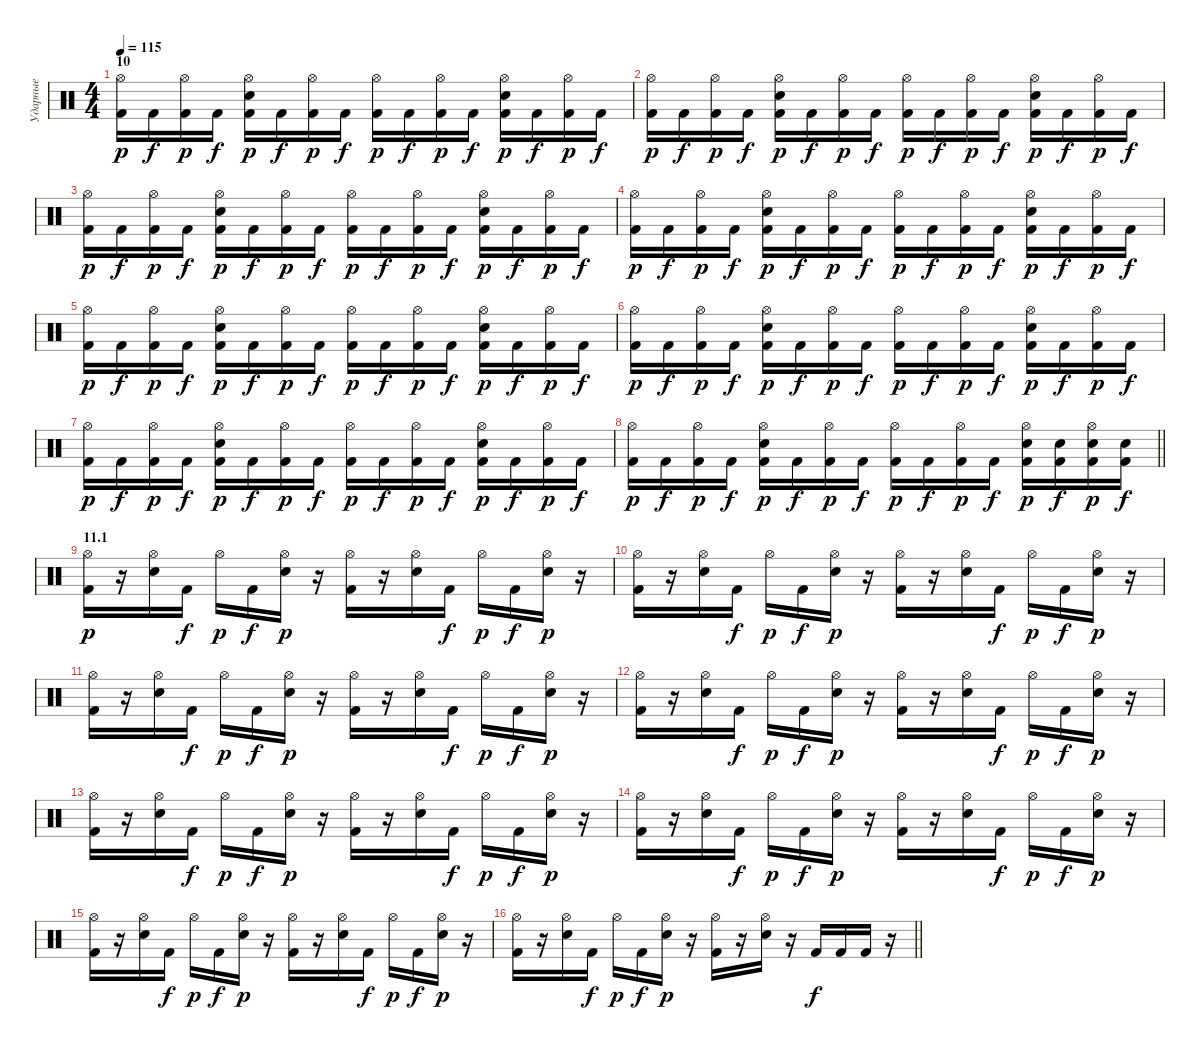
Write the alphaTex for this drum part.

\track ("Ударные" "Ударные") {instrument percussion}
\staff {score}
\articulation defaults
\ts (4 4)
\section ("" "10")
\tempo 115
\clef neutral
\ks c
("Hi-Hat (open)" "Kick (hit) 2").16{dy p} "Kick (hit) 2".16{dy f} ("Hi-Hat (open)" "Kick (hit) 2").16{dy p} "Kick (hit) 2".16{dy f} ("Hi-Hat (open)" "Snare (hit) 2" "Kick (hit) 2").16{dy p} "Kick (hit) 2".16{dy f} ("Hi-Hat (open)" "Kick (hit) 2").16{dy p} "Kick (hit) 2".16{dy f} ("Hi-Hat (open)" "Kick (hit) 2").16{dy p} "Kick (hit) 2".16{dy f} ("Hi-Hat (open)" "Kick (hit) 2").16{dy p} "Kick (hit) 2".16{dy f} ("Hi-Hat (open)" "Snare (hit) 2" "Kick (hit) 2").16{dy p} "Kick (hit) 2".16{dy f} ("Hi-Hat (open)" "Kick (hit) 2").16{dy p} "Kick (hit) 2".16{dy f} |
("Hi-Hat (open)" "Kick (hit) 2").16{dy p} "Kick (hit) 2".16{dy f} ("Hi-Hat (open)" "Kick (hit) 2").16{dy p} "Kick (hit) 2".16{dy f} ("Hi-Hat (open)" "Snare (hit) 2" "Kick (hit) 2").16{dy p} "Kick (hit) 2".16{dy f} ("Hi-Hat (open)" "Kick (hit) 2").16{dy p} "Kick (hit) 2".16{dy f} ("Hi-Hat (open)" "Kick (hit) 2").16{dy p} "Kick (hit) 2".16{dy f} ("Hi-Hat (open)" "Kick (hit) 2").16{dy p} "Kick (hit) 2".16{dy f} ("Hi-Hat (open)" "Snare (hit) 2" "Kick (hit) 2").16{dy p} "Kick (hit) 2".16{dy f} ("Hi-Hat (open)" "Kick (hit) 2").16{dy p} "Kick (hit) 2".16{dy f} |
("Hi-Hat (open)" "Kick (hit) 2").16{dy p} "Kick (hit) 2".16{dy f} ("Hi-Hat (open)" "Kick (hit) 2").16{dy p} "Kick (hit) 2".16{dy f} ("Hi-Hat (open)" "Snare (hit) 2" "Kick (hit) 2").16{dy p} "Kick (hit) 2".16{dy f} ("Hi-Hat (open)" "Kick (hit) 2").16{dy p} "Kick (hit) 2".16{dy f} ("Hi-Hat (open)" "Kick (hit) 2").16{dy p} "Kick (hit) 2".16{dy f} ("Hi-Hat (open)" "Kick (hit) 2").16{dy p} "Kick (hit) 2".16{dy f} ("Hi-Hat (open)" "Snare (hit) 2" "Kick (hit) 2").16{dy p} "Kick (hit) 2".16{dy f} ("Hi-Hat (open)" "Kick (hit) 2").16{dy p} "Kick (hit) 2".16{dy f} |
("Hi-Hat (open)" "Kick (hit) 2").16{dy p} "Kick (hit) 2".16{dy f} ("Hi-Hat (open)" "Kick (hit) 2").16{dy p} "Kick (hit) 2".16{dy f} ("Hi-Hat (open)" "Snare (hit) 2" "Kick (hit) 2").16{dy p} "Kick (hit) 2".16{dy f} ("Hi-Hat (open)" "Kick (hit) 2").16{dy p} "Kick (hit) 2".16{dy f} ("Hi-Hat (open)" "Kick (hit) 2").16{dy p} "Kick (hit) 2".16{dy f} ("Hi-Hat (open)" "Kick (hit) 2").16{dy p} "Kick (hit) 2".16{dy f} ("Hi-Hat (open)" "Snare (hit) 2" "Kick (hit) 2").16{dy p} "Kick (hit) 2".16{dy f} ("Hi-Hat (open)" "Kick (hit) 2").16{dy p} "Kick (hit) 2".16{dy f} |
("Hi-Hat (open)" "Kick (hit) 2").16{dy p} "Kick (hit) 2".16{dy f} ("Hi-Hat (open)" "Kick (hit) 2").16{dy p} "Kick (hit) 2".16{dy f} ("Hi-Hat (open)" "Snare (hit) 2" "Kick (hit) 2").16{dy p} "Kick (hit) 2".16{dy f} ("Hi-Hat (open)" "Kick (hit) 2").16{dy p} "Kick (hit) 2".16{dy f} ("Hi-Hat (open)" "Kick (hit) 2").16{dy p} "Kick (hit) 2".16{dy f} ("Hi-Hat (open)" "Kick (hit) 2").16{dy p} "Kick (hit) 2".16{dy f} ("Hi-Hat (open)" "Snare (hit) 2" "Kick (hit) 2").16{dy p} "Kick (hit) 2".16{dy f} ("Hi-Hat (open)" "Kick (hit) 2").16{dy p} "Kick (hit) 2".16{dy f} |
("Hi-Hat (open)" "Kick (hit) 2").16{dy p} "Kick (hit) 2".16{dy f} ("Hi-Hat (open)" "Kick (hit) 2").16{dy p} "Kick (hit) 2".16{dy f} ("Hi-Hat (open)" "Snare (hit) 2" "Kick (hit) 2").16{dy p} "Kick (hit) 2".16{dy f} ("Hi-Hat (open)" "Kick (hit) 2").16{dy p} "Kick (hit) 2".16{dy f} ("Hi-Hat (open)" "Kick (hit) 2").16{dy p} "Kick (hit) 2".16{dy f} ("Hi-Hat (open)" "Kick (hit) 2").16{dy p} "Kick (hit) 2".16{dy f} ("Hi-Hat (open)" "Snare (hit) 2" "Kick (hit) 2").16{dy p} "Kick (hit) 2".16{dy f} ("Hi-Hat (open)" "Kick (hit) 2").16{dy p} "Kick (hit) 2".16{dy f} |
("Hi-Hat (open)" "Kick (hit) 2").16{dy p} "Kick (hit) 2".16{dy f} ("Hi-Hat (open)" "Kick (hit) 2").16{dy p} "Kick (hit) 2".16{dy f} ("Hi-Hat (open)" "Snare (hit) 2" "Kick (hit) 2").16{dy p} "Kick (hit) 2".16{dy f} ("Hi-Hat (open)" "Kick (hit) 2").16{dy p} "Kick (hit) 2".16{dy f} ("Hi-Hat (open)" "Kick (hit) 2").16{dy p} "Kick (hit) 2".16{dy f} ("Hi-Hat (open)" "Kick (hit) 2").16{dy p} "Kick (hit) 2".16{dy f} ("Hi-Hat (open)" "Snare (hit) 2" "Kick (hit) 2").16{dy p} "Kick (hit) 2".16{dy f} ("Hi-Hat (open)" "Kick (hit) 2").16{dy p} "Kick (hit) 2".16{dy f} |
\barLineRight lightlight
("Hi-Hat (open)" "Kick (hit) 2").16{dy p} "Kick (hit) 2".16{dy f} ("Hi-Hat (open)" "Kick (hit) 2").16{dy p} "Kick (hit) 2".16{dy f} ("Hi-Hat (open)" "Snare (hit) 2" "Kick (hit) 2").16{dy p} "Kick (hit) 2".16{dy f} ("Hi-Hat (open)" "Kick (hit) 2").16{dy p} "Kick (hit) 2".16{dy f} ("Hi-Hat (open)" "Kick (hit) 2").16{dy p} "Kick (hit) 2".16{dy f} ("Hi-Hat (open)" "Kick (hit) 2").16{dy p} "Kick (hit) 2".16{dy f} ("Hi-Hat (open)" "Snare (hit) 2" "Kick (hit) 2").16{dy p} ("Snare (hit) 2" "Kick (hit) 2").16{dy f} ("Hi-Hat (open)" "Snare (hit) 2" "Kick (hit) 2").16{dy p} ("Snare (hit) 2" "Kick (hit) 2").16{dy f} |
\section ("" "11.1")
("Hi-Hat (open)" "Kick (hit) 2").16{dy p} r.16 ("Hi-Hat (open)" "Snare (hit) 2").16 "Kick (hit) 2".16{dy f} "Hi-Hat (open)".16{dy p} "Kick (hit) 2".16{dy f} ("Hi-Hat (open)" "Snare (hit) 2").16{dy p} r.16 ("Hi-Hat (open)" "Kick (hit) 2").16 r.16 ("Hi-Hat (open)" "Snare (hit) 2").16 "Kick (hit) 2".16{dy f} "Hi-Hat (open)".16{dy p} "Kick (hit) 2".16{dy f} ("Hi-Hat (open)" "Snare (hit) 2").16{dy p} r.16 |
("Hi-Hat (open)" "Kick (hit) 2").16 r.16 ("Hi-Hat (open)" "Snare (hit) 2").16 "Kick (hit) 2".16{dy f} "Hi-Hat (open)".16{dy p} "Kick (hit) 2".16{dy f} ("Hi-Hat (open)" "Snare (hit) 2").16{dy p} r.16 ("Hi-Hat (open)" "Kick (hit) 2").16 r.16 ("Hi-Hat (open)" "Snare (hit) 2").16 "Kick (hit) 2".16{dy f} "Hi-Hat (open)".16{dy p} "Kick (hit) 2".16{dy f} ("Hi-Hat (open)" "Snare (hit) 2").16{dy p} r.16 |
("Hi-Hat (open)" "Kick (hit) 2").16 r.16 ("Hi-Hat (open)" "Snare (hit) 2").16 "Kick (hit) 2".16{dy f} "Hi-Hat (open)".16{dy p} "Kick (hit) 2".16{dy f} ("Hi-Hat (open)" "Snare (hit) 2").16{dy p} r.16 ("Hi-Hat (open)" "Kick (hit) 2").16 r.16 ("Hi-Hat (open)" "Snare (hit) 2").16 "Kick (hit) 2".16{dy f} "Hi-Hat (open)".16{dy p} "Kick (hit) 2".16{dy f} ("Hi-Hat (open)" "Snare (hit) 2").16{dy p} r.16 |
("Hi-Hat (open)" "Kick (hit) 2").16 r.16 ("Hi-Hat (open)" "Snare (hit) 2").16 "Kick (hit) 2".16{dy f} "Hi-Hat (open)".16{dy p} "Kick (hit) 2".16{dy f} ("Hi-Hat (open)" "Snare (hit) 2").16{dy p} r.16 ("Hi-Hat (open)" "Kick (hit) 2").16 r.16 ("Hi-Hat (open)" "Snare (hit) 2").16 "Kick (hit) 2".16{dy f} "Hi-Hat (open)".16{dy p} "Kick (hit) 2".16{dy f} ("Hi-Hat (open)" "Snare (hit) 2").16{dy p} r.16 |
("Hi-Hat (open)" "Kick (hit) 2").16 r.16 ("Hi-Hat (open)" "Snare (hit) 2").16 "Kick (hit) 2".16{dy f} "Hi-Hat (open)".16{dy p} "Kick (hit) 2".16{dy f} ("Hi-Hat (open)" "Snare (hit) 2").16{dy p} r.16 ("Hi-Hat (open)" "Kick (hit) 2").16 r.16 ("Hi-Hat (open)" "Snare (hit) 2").16 "Kick (hit) 2".16{dy f} "Hi-Hat (open)".16{dy p} "Kick (hit) 2".16{dy f} ("Hi-Hat (open)" "Snare (hit) 2").16{dy p} r.16 |
("Hi-Hat (open)" "Kick (hit) 2").16 r.16 ("Hi-Hat (open)" "Snare (hit) 2").16 "Kick (hit) 2".16{dy f} "Hi-Hat (open)".16{dy p} "Kick (hit) 2".16{dy f} ("Hi-Hat (open)" "Snare (hit) 2").16{dy p} r.16 ("Hi-Hat (open)" "Kick (hit) 2").16 r.16 ("Hi-Hat (open)" "Snare (hit) 2").16 "Kick (hit) 2".16{dy f} "Hi-Hat (open)".16{dy p} "Kick (hit) 2".16{dy f} ("Hi-Hat (open)" "Snare (hit) 2").16{dy p} r.16 |
("Hi-Hat (open)" "Kick (hit) 2").16 r.16 ("Hi-Hat (open)" "Snare (hit) 2").16 "Kick (hit) 2".16{dy f} "Hi-Hat (open)".16{dy p} "Kick (hit) 2".16{dy f} ("Hi-Hat (open)" "Snare (hit) 2").16{dy p} r.16 ("Hi-Hat (open)" "Kick (hit) 2").16 r.16 ("Hi-Hat (open)" "Snare (hit) 2").16 "Kick (hit) 2".16{dy f} "Hi-Hat (open)".16{dy p} "Kick (hit) 2".16{dy f} ("Hi-Hat (open)" "Snare (hit) 2").16{dy p} r.16 |
\barLineRight lightlight
("Hi-Hat (open)" "Kick (hit) 2").16 r.16 ("Hi-Hat (open)" "Snare (hit) 2").16 "Kick (hit) 2".16{dy f} "Hi-Hat (open)".16{dy p} "Kick (hit) 2".16{dy f} ("Hi-Hat (open)" "Snare (hit) 2").16{dy p} r.16 ("Hi-Hat (open)" "Kick (hit) 2").16 r.16 ("Hi-Hat (open)" "Snare (hit) 2").16 r.16 "Kick (hit) 2".16{dy f} "Kick (hit) 2".16 "Kick (hit) 2".16 r.16
